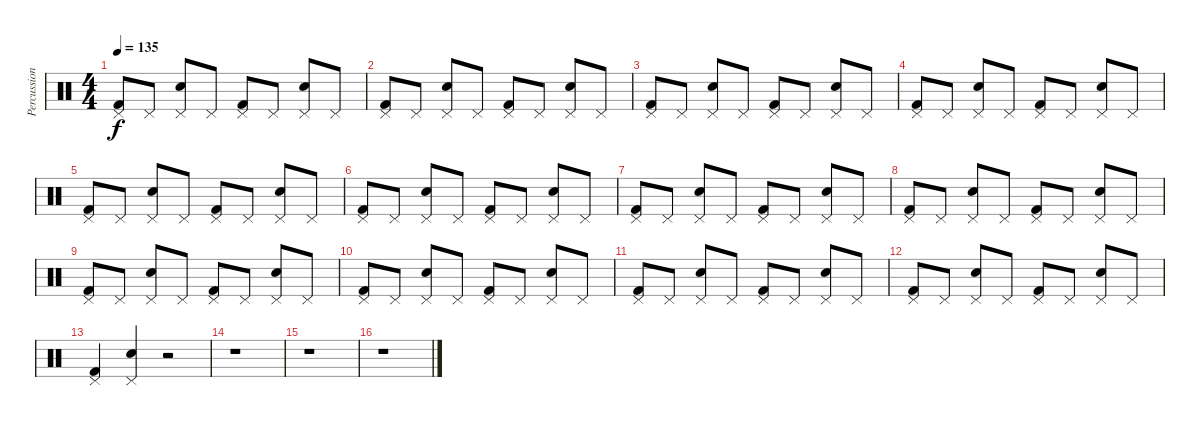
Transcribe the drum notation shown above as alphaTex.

\track ("Percussions" "Percussion") {instrument percussion}
\staff {score}
\articulation defaults
\ts (4 4)
\tempo 135
\clef neutral
\ks c
("Pedal Hi-Hat (hit)" "Kick (hit) 2").8{dy f} "Pedal Hi-Hat (hit)".8 ("Pedal Hi-Hat (hit)" "Electric Snare (hit)").8 "Pedal Hi-Hat (hit)".8 ("Pedal Hi-Hat (hit)" "Kick (hit) 2").8 "Pedal Hi-Hat (hit)".8 ("Pedal Hi-Hat (hit)" "Electric Snare (hit)").8 "Pedal Hi-Hat (hit)".8 |
("Pedal Hi-Hat (hit)" "Kick (hit) 2").8 "Pedal Hi-Hat (hit)".8 ("Pedal Hi-Hat (hit)" "Electric Snare (hit)").8 "Pedal Hi-Hat (hit)".8 ("Pedal Hi-Hat (hit)" "Kick (hit) 2").8 "Pedal Hi-Hat (hit)".8 ("Pedal Hi-Hat (hit)" "Electric Snare (hit)").8 "Pedal Hi-Hat (hit)".8 |
("Pedal Hi-Hat (hit)" "Kick (hit) 2").8 "Pedal Hi-Hat (hit)".8 ("Pedal Hi-Hat (hit)" "Electric Snare (hit)").8 "Pedal Hi-Hat (hit)".8 ("Pedal Hi-Hat (hit)" "Kick (hit) 2").8 "Pedal Hi-Hat (hit)".8 ("Pedal Hi-Hat (hit)" "Electric Snare (hit)").8 "Pedal Hi-Hat (hit)".8 |
("Pedal Hi-Hat (hit)" "Kick (hit) 2").8 "Pedal Hi-Hat (hit)".8 ("Pedal Hi-Hat (hit)" "Electric Snare (hit)").8 "Pedal Hi-Hat (hit)".8 ("Pedal Hi-Hat (hit)" "Kick (hit) 2").8 "Pedal Hi-Hat (hit)".8 ("Pedal Hi-Hat (hit)" "Electric Snare (hit)").8 "Pedal Hi-Hat (hit)".8 |
("Pedal Hi-Hat (hit)" "Kick (hit) 2").8 "Pedal Hi-Hat (hit)".8 ("Pedal Hi-Hat (hit)" "Electric Snare (hit)").8 "Pedal Hi-Hat (hit)".8 ("Pedal Hi-Hat (hit)" "Kick (hit) 2").8 "Pedal Hi-Hat (hit)".8 ("Pedal Hi-Hat (hit)" "Electric Snare (hit)").8 "Pedal Hi-Hat (hit)".8 |
("Pedal Hi-Hat (hit)" "Kick (hit) 2").8 "Pedal Hi-Hat (hit)".8 ("Pedal Hi-Hat (hit)" "Electric Snare (hit)").8 "Pedal Hi-Hat (hit)".8 ("Pedal Hi-Hat (hit)" "Kick (hit) 2").8 "Pedal Hi-Hat (hit)".8 ("Pedal Hi-Hat (hit)" "Electric Snare (hit)").8 "Pedal Hi-Hat (hit)".8 |
("Pedal Hi-Hat (hit)" "Kick (hit) 2").8 "Pedal Hi-Hat (hit)".8 ("Pedal Hi-Hat (hit)" "Electric Snare (hit)").8 "Pedal Hi-Hat (hit)".8 ("Pedal Hi-Hat (hit)" "Kick (hit) 2").8 "Pedal Hi-Hat (hit)".8 ("Pedal Hi-Hat (hit)" "Electric Snare (hit)").8 "Pedal Hi-Hat (hit)".8 |
("Pedal Hi-Hat (hit)" "Kick (hit) 2").8 "Pedal Hi-Hat (hit)".8 ("Pedal Hi-Hat (hit)" "Electric Snare (hit)").8 "Pedal Hi-Hat (hit)".8 ("Pedal Hi-Hat (hit)" "Kick (hit) 2").8 "Pedal Hi-Hat (hit)".8 ("Pedal Hi-Hat (hit)" "Electric Snare (hit)").8 "Pedal Hi-Hat (hit)".8 |
("Pedal Hi-Hat (hit)" "Kick (hit) 2").8 "Pedal Hi-Hat (hit)".8 ("Pedal Hi-Hat (hit)" "Electric Snare (hit)").8 "Pedal Hi-Hat (hit)".8 ("Pedal Hi-Hat (hit)" "Kick (hit) 2").8 "Pedal Hi-Hat (hit)".8 ("Pedal Hi-Hat (hit)" "Electric Snare (hit)").8 "Pedal Hi-Hat (hit)".8 |
("Pedal Hi-Hat (hit)" "Kick (hit) 2").8 "Pedal Hi-Hat (hit)".8 ("Pedal Hi-Hat (hit)" "Electric Snare (hit)").8 "Pedal Hi-Hat (hit)".8 ("Pedal Hi-Hat (hit)" "Kick (hit) 2").8 "Pedal Hi-Hat (hit)".8 ("Pedal Hi-Hat (hit)" "Electric Snare (hit)").8 "Pedal Hi-Hat (hit)".8 |
("Pedal Hi-Hat (hit)" "Kick (hit) 2").8 "Pedal Hi-Hat (hit)".8 ("Pedal Hi-Hat (hit)" "Electric Snare (hit)").8 "Pedal Hi-Hat (hit)".8 ("Pedal Hi-Hat (hit)" "Kick (hit) 2").8 "Pedal Hi-Hat (hit)".8 ("Pedal Hi-Hat (hit)" "Electric Snare (hit)").8 "Pedal Hi-Hat (hit)".8 |
("Pedal Hi-Hat (hit)" "Kick (hit) 2").8 "Pedal Hi-Hat (hit)".8 ("Pedal Hi-Hat (hit)" "Electric Snare (hit)").8 "Pedal Hi-Hat (hit)".8 ("Pedal Hi-Hat (hit)" "Kick (hit) 2").8 "Pedal Hi-Hat (hit)".8 ("Pedal Hi-Hat (hit)" "Electric Snare (hit)").8 "Pedal Hi-Hat (hit)".8 |
("Pedal Hi-Hat (hit)" "Kick (hit) 2").4 ("Pedal Hi-Hat (hit)" "Electric Snare (hit)").4 r.2 |
r.1 |
r.1 |
r.1
